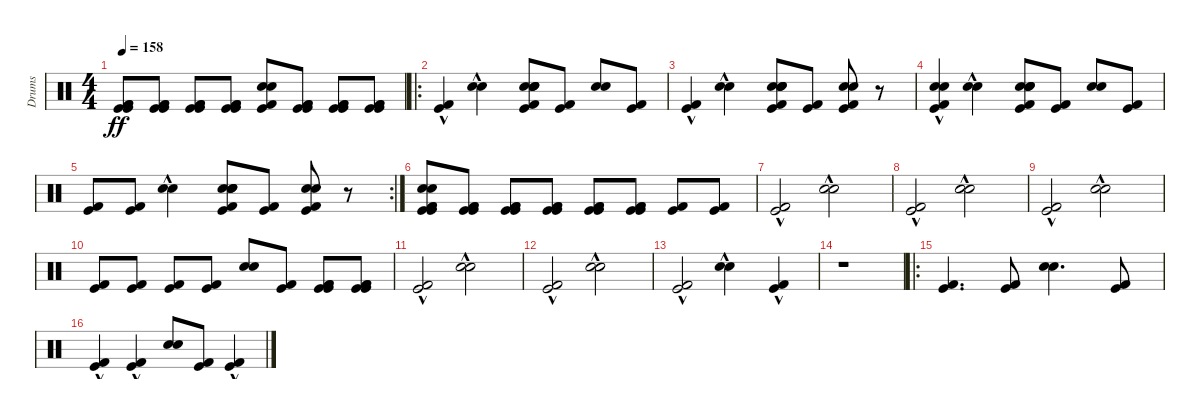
\track ("Drums" "Drums") {instrument percussion}
\staff {score}
\articulation defaults
\ts (4 4)
\tempo 158
\clef neutral
\ks c
("Kick (hit)" "Kick (hit) 2" "Kick (hit)" "Kick (hit) 2").8{dy ff} ("Kick (hit)" "Kick (hit) 2" "Kick (hit)" "Kick (hit) 2").8 ("Kick (hit)" "Kick (hit) 2" "Kick (hit)" "Kick (hit) 2").8 ("Kick (hit)" "Kick (hit) 2" "Kick (hit)" "Kick (hit) 2").8 ("Snare (hit) 2" "Electric Snare (hit)" "Kick (hit)" "Kick (hit) 2").8 ("Kick (hit)" "Kick (hit) 2" "Kick (hit)" "Kick (hit) 2").8 ("Kick (hit)" "Kick (hit) 2" "Kick (hit)" "Kick (hit) 2").8 ("Kick (hit)" "Kick (hit) 2" "Kick (hit)" "Kick (hit) 2").8 |
\ro
("Kick (hit)"{hac} "Kick (hit) 2"{hac}).4 ("Snare (hit) 2"{hac} "Electric Snare (hit)"{hac}).4 ("Snare (hit) 2" "Electric Snare (hit)" "Kick (hit)" "Kick (hit) 2" "Snare (hit) 2" "Electric Snare (hit)").8 ("Kick (hit)" "Kick (hit) 2").8 ("Snare (hit) 2" "Electric Snare (hit)").8 ("Kick (hit)" "Kick (hit) 2").8 |
("Kick (hit)"{hac} "Kick (hit) 2"{hac}).4 ("Snare (hit) 2"{hac} "Electric Snare (hit)"{hac}).4 ("Snare (hit) 2" "Electric Snare (hit)" "Kick (hit)" "Kick (hit) 2" "Snare (hit) 2" "Electric Snare (hit)").8 ("Kick (hit)" "Kick (hit) 2").8 ("Snare (hit) 2" "Electric Snare (hit)" "Kick (hit)" "Kick (hit) 2").8 r.8 |
("Snare (hit) 2" "Electric Snare (hit)" "Kick (hit)"{hac} "Kick (hit) 2"{hac}).4 ("Snare (hit) 2"{hac} "Electric Snare (hit)"{hac}).4 ("Snare (hit) 2" "Electric Snare (hit)" "Kick (hit)" "Kick (hit) 2" "Snare (hit) 2" "Electric Snare (hit)").8 ("Kick (hit)" "Kick (hit) 2").8 ("Snare (hit) 2" "Electric Snare (hit)").8 ("Kick (hit)" "Kick (hit) 2").8 |
\rc 2
("Kick (hit)" "Kick (hit) 2").8 ("Kick (hit)" "Kick (hit) 2").8 ("Snare (hit) 2"{hac} "Electric Snare (hit)"{hac}).4 ("Snare (hit) 2" "Electric Snare (hit)" "Kick (hit)" "Kick (hit) 2" "Snare (hit) 2" "Electric Snare (hit)").8 ("Kick (hit)" "Kick (hit) 2").8 ("Snare (hit) 2" "Electric Snare (hit)" "Kick (hit)" "Kick (hit) 2").8 r.8 |
("Snare (hit) 2" "Electric Snare (hit)" "Kick (hit)" "Kick (hit) 2" "Kick (hit)" "Kick (hit) 2").8 ("Kick (hit)" "Kick (hit) 2" "Kick (hit)" "Kick (hit) 2").8 ("Kick (hit)" "Kick (hit) 2" "Kick (hit)" "Kick (hit) 2").8 ("Kick (hit)" "Kick (hit) 2" "Kick (hit)" "Kick (hit) 2").8 ("Kick (hit)" "Kick (hit) 2" "Kick (hit)" "Kick (hit) 2").8 ("Kick (hit)" "Kick (hit) 2" "Kick (hit)" "Kick (hit) 2").8 ("Kick (hit)" "Kick (hit) 2").8 ("Kick (hit)" "Kick (hit) 2").8 |
("Kick (hit)"{hac} "Kick (hit) 2"{hac}).2 ("Snare (hit) 2"{hac} "Electric Snare (hit)"{hac}).2 |
("Kick (hit)"{hac} "Kick (hit) 2"{hac}).2 ("Snare (hit) 2"{hac} "Electric Snare (hit)"{hac}).2 |
("Kick (hit)"{hac} "Kick (hit) 2"{hac}).2 ("Snare (hit) 2"{hac} "Electric Snare (hit)"{hac}).2 |
("Kick (hit)" "Kick (hit) 2").8 ("Kick (hit)" "Kick (hit) 2").8 ("Kick (hit)" "Kick (hit) 2").8 ("Kick (hit)" "Kick (hit) 2").8 ("Snare (hit) 2" "Electric Snare (hit)").8 ("Kick (hit)" "Kick (hit) 2").8 ("Kick (hit)" "Kick (hit) 2" "Kick (hit)" "Kick (hit) 2").8 ("Kick (hit)" "Kick (hit) 2" "Kick (hit)" "Kick (hit) 2").8 |
("Kick (hit)"{hac} "Kick (hit) 2"{hac}).2 ("Snare (hit) 2"{hac} "Electric Snare (hit)"{hac}).2 |
("Kick (hit)"{hac} "Kick (hit) 2"{hac}).2 ("Snare (hit) 2"{hac} "Electric Snare (hit)"{hac}).2 |
("Kick (hit)"{hac} "Kick (hit) 2"{hac}).2 ("Snare (hit) 2"{hac} "Electric Snare (hit)"{hac}).4 ("Kick (hit)"{hac} "Kick (hit) 2"{hac}).4 |
r.1 |
\ro
("Kick (hit)" "Kick (hit) 2").4{d} ("Kick (hit)" "Kick (hit) 2").8 ("Snare (hit) 2" "Electric Snare (hit)").4{d} ("Kick (hit)" "Kick (hit) 2").8 |
("Kick (hit)"{hac} "Kick (hit) 2"{hac}).4 ("Kick (hit)"{hac} "Kick (hit) 2"{hac}).4 ("Snare (hit) 2" "Electric Snare (hit)").8 ("Kick (hit)" "Kick (hit) 2").8 ("Kick (hit)"{hac} "Kick (hit) 2"{hac}).4
